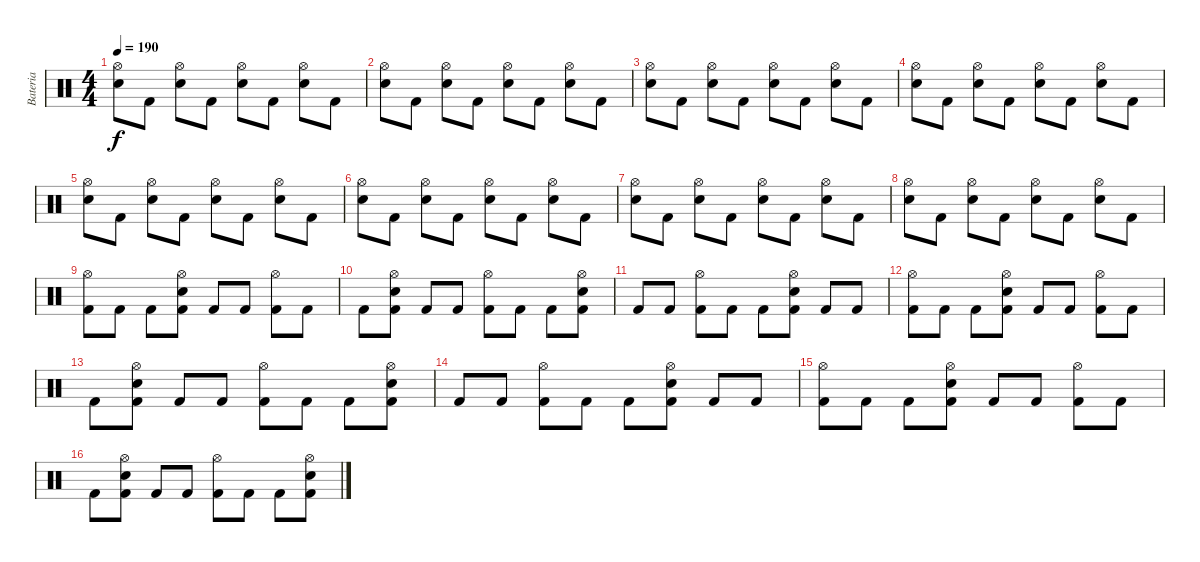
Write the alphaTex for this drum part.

\track ("Bateria" "Bateria") {instrument percussion}
\staff {score}
\articulation defaults
\ts (4 4)
\tempo 190
\clef neutral
\ks c
("Hi-Hat (open)" "Electric Snare (hit)").8{dy f} "Kick (hit) 2".8 ("Hi-Hat (open)" "Electric Snare (hit)").8 "Kick (hit) 2".8 ("Hi-Hat (open)" "Electric Snare (hit)").8 "Kick (hit) 2".8 ("Hi-Hat (open)" "Electric Snare (hit)").8 "Kick (hit) 2".8 |
("Hi-Hat (open)" "Electric Snare (hit)").8 "Kick (hit) 2".8 ("Hi-Hat (open)" "Electric Snare (hit)").8 "Kick (hit) 2".8 ("Hi-Hat (open)" "Electric Snare (hit)").8 "Kick (hit) 2".8 ("Hi-Hat (open)" "Electric Snare (hit)").8 "Kick (hit) 2".8 |
("Hi-Hat (open)" "Electric Snare (hit)").8 "Kick (hit) 2".8 ("Hi-Hat (open)" "Electric Snare (hit)").8 "Kick (hit) 2".8 ("Hi-Hat (open)" "Electric Snare (hit)").8 "Kick (hit) 2".8 ("Hi-Hat (open)" "Electric Snare (hit)").8 "Kick (hit) 2".8 |
("Hi-Hat (open)" "Electric Snare (hit)").8 "Kick (hit) 2".8 ("Hi-Hat (open)" "Electric Snare (hit)").8 "Kick (hit) 2".8 ("Hi-Hat (open)" "Electric Snare (hit)").8 "Kick (hit) 2".8 ("Hi-Hat (open)" "Electric Snare (hit)").8 "Kick (hit) 2".8 |
("Hi-Hat (open)" "Electric Snare (hit)").8 "Kick (hit) 2".8 ("Hi-Hat (open)" "Electric Snare (hit)").8 "Kick (hit) 2".8 ("Hi-Hat (open)" "Electric Snare (hit)").8 "Kick (hit) 2".8 ("Hi-Hat (open)" "Electric Snare (hit)").8 "Kick (hit) 2".8 |
("Hi-Hat (open)" "Electric Snare (hit)").8 "Kick (hit) 2".8 ("Hi-Hat (open)" "Electric Snare (hit)").8 "Kick (hit) 2".8 ("Hi-Hat (open)" "Electric Snare (hit)").8 "Kick (hit) 2".8 ("Hi-Hat (open)" "Electric Snare (hit)").8 "Kick (hit) 2".8 |
("Hi-Hat (open)" "Electric Snare (hit)").8 "Kick (hit) 2".8 ("Hi-Hat (open)" "Electric Snare (hit)").8 "Kick (hit) 2".8 ("Hi-Hat (open)" "Electric Snare (hit)").8 "Kick (hit) 2".8 ("Hi-Hat (open)" "Electric Snare (hit)").8 "Kick (hit) 2".8 |
("Hi-Hat (open)" "Electric Snare (hit)").8 "Kick (hit) 2".8 ("Hi-Hat (open)" "Electric Snare (hit)").8 "Kick (hit) 2".8 ("Hi-Hat (open)" "Electric Snare (hit)").8 "Kick (hit) 2".8 ("Hi-Hat (open)" "Electric Snare (hit)").8 "Kick (hit) 2".8 |
("Hi-Hat (open)" "Kick (hit) 2").8 "Kick (hit) 2".8 "Kick (hit) 2".8 ("Hi-Hat (open)" "Electric Snare (hit)" "Kick (hit) 2").8 "Kick (hit) 2".8 "Kick (hit) 2".8 ("Hi-Hat (open)" "Kick (hit) 2").8 "Kick (hit) 2".8 |
"Kick (hit) 2".8 ("Hi-Hat (open)" "Electric Snare (hit)" "Kick (hit) 2").8 "Kick (hit) 2".8 "Kick (hit) 2".8 ("Hi-Hat (open)" "Kick (hit) 2").8 "Kick (hit) 2".8 "Kick (hit) 2".8 ("Hi-Hat (open)" "Electric Snare (hit)" "Kick (hit) 2").8 |
"Kick (hit) 2".8 "Kick (hit) 2".8 ("Hi-Hat (open)" "Kick (hit) 2").8 "Kick (hit) 2".8 "Kick (hit) 2".8 ("Hi-Hat (open)" "Electric Snare (hit)" "Kick (hit) 2").8 "Kick (hit) 2".8 "Kick (hit) 2".8 |
("Hi-Hat (open)" "Kick (hit) 2").8 "Kick (hit) 2".8 "Kick (hit) 2".8 ("Hi-Hat (open)" "Electric Snare (hit)" "Kick (hit) 2").8 "Kick (hit) 2".8 "Kick (hit) 2".8 ("Hi-Hat (open)" "Kick (hit) 2").8 "Kick (hit) 2".8 |
"Kick (hit) 2".8 ("Hi-Hat (open)" "Electric Snare (hit)" "Kick (hit) 2").8 "Kick (hit) 2".8 "Kick (hit) 2".8 ("Hi-Hat (open)" "Kick (hit) 2").8 "Kick (hit) 2".8 "Kick (hit) 2".8 ("Hi-Hat (open)" "Electric Snare (hit)" "Kick (hit) 2").8 |
"Kick (hit) 2".8 "Kick (hit) 2".8 ("Hi-Hat (open)" "Kick (hit) 2").8 "Kick (hit) 2".8 "Kick (hit) 2".8 ("Hi-Hat (open)" "Electric Snare (hit)" "Kick (hit) 2").8 "Kick (hit) 2".8 "Kick (hit) 2".8 |
("Hi-Hat (open)" "Kick (hit) 2").8 "Kick (hit) 2".8 "Kick (hit) 2".8 ("Hi-Hat (open)" "Electric Snare (hit)" "Kick (hit) 2").8 "Kick (hit) 2".8 "Kick (hit) 2".8 ("Hi-Hat (open)" "Kick (hit) 2").8 "Kick (hit) 2".8 |
"Kick (hit) 2".8 ("Hi-Hat (open)" "Electric Snare (hit)" "Kick (hit) 2").8 "Kick (hit) 2".8 "Kick (hit) 2".8 ("Hi-Hat (open)" "Kick (hit) 2").8 "Kick (hit) 2".8 "Kick (hit) 2".8 ("Hi-Hat (open)" "Electric Snare (hit)" "Kick (hit) 2").8
